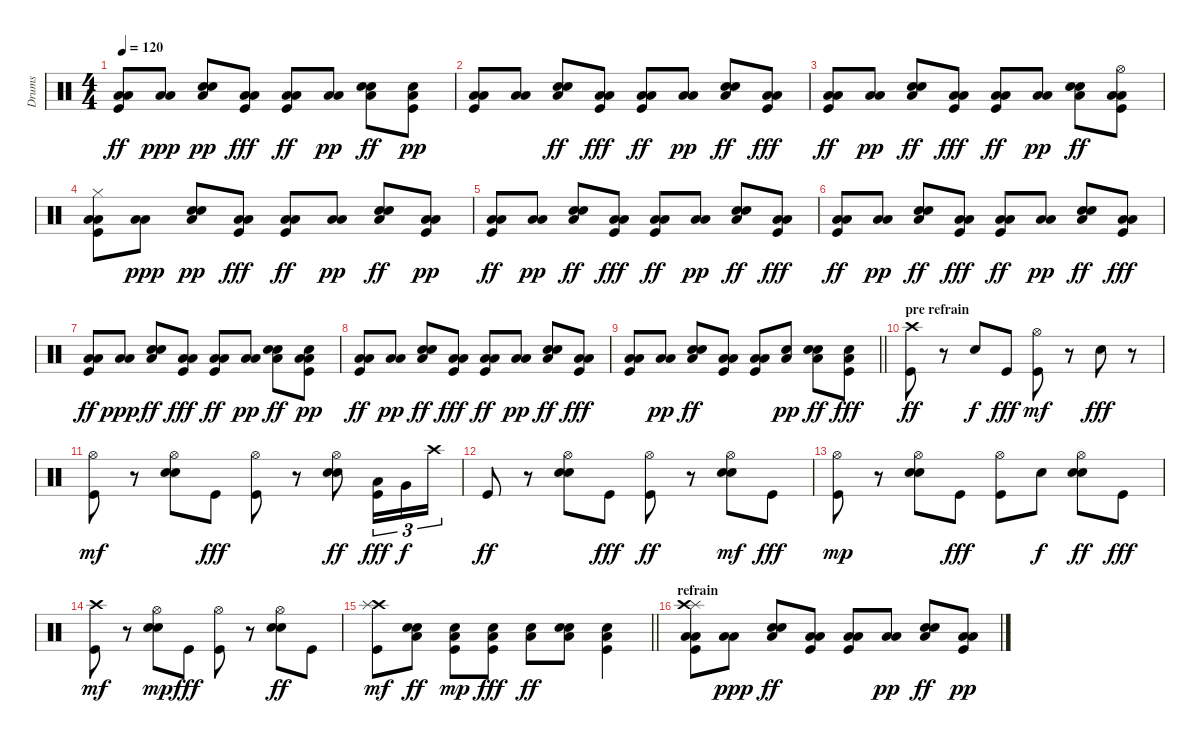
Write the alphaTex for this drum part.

\track ("Drums" "Drums") {instrument percussion}
\staff {score}
\articulation defaults
\ts (4 4)
\tempo 120
\clef neutral
\ks c
("Low Tom (hit)" "Low Floor Tom (hit)" "Kick (hit)").8{dy ff} ("Low Floor Tom (hit)" "Low Tom (hit)").8{dy ppp} ("Hand Clap (hit)" "Snare (hit) 2" "Low Floor Tom (hit)").8{dy pp} ("Low Tom (hit)" "Low Floor Tom (hit)" "Kick (hit)").8{dy fff} ("Low Tom (hit)" "Low Floor Tom (hit)" "Kick (hit)").8{dy ff} ("Low Tom (hit)" "Low Floor Tom (hit)").8{dy pp} ("Low Floor Tom (hit)" "Hand Clap (hit)" "Snare (hit) 2").8{dy ff} ("Snare (hit) 2" "Kick (hit)" "Low Floor Tom (hit)").8{dy pp} |
("Kick (hit)" "Low Tom (hit)" "Low Floor Tom (hit)").8 ("Low Tom (hit)" "Low Floor Tom (hit)").8 ("Snare (hit) 2" "Low Floor Tom (hit)" "Hand Clap (hit)").8{dy ff} ("Low Tom (hit)" "Low Floor Tom (hit)" "Kick (hit)").8{dy fff} ("Low Tom (hit)" "Low Floor Tom (hit)" "Kick (hit)").8{dy ff} ("Low Tom (hit)" "Low Floor Tom (hit)").8{dy pp} ("Low Floor Tom (hit)" "Hand Clap (hit)" "Snare (hit) 2").8{dy ff} ("Low Tom (hit)" "Low Floor Tom (hit)" "Kick (hit)").8{dy fff} |
("Low Tom (hit)" "Low Floor Tom (hit)" "Kick (hit)").8{dy ff} ("Low Tom (hit)" "Low Floor Tom (hit)").8{dy pp} ("Snare (hit) 2" "Low Floor Tom (hit)" "Hand Clap (hit)").8{dy ff} ("Low Tom (hit)" "Low Floor Tom (hit)" "Kick (hit)").8{dy fff} ("Low Tom (hit)" "Low Floor Tom (hit)" "Kick (hit)").8{dy ff} ("Low Floor Tom (hit)" "Low Tom (hit)").8{dy pp} ("Low Floor Tom (hit)" "Hand Clap (hit)" "Snare (hit) 2").8{dy ff} ("Low Tom (hit)" "Low Floor Tom (hit)" "Kick (hit)" "Hi-Hat (open)").8 |
("Hi-Hat (closed)" "Low Tom (hit)" "Low Floor Tom (hit)" "Kick (hit)").8 ("Low Floor Tom (hit)" "Low Tom (hit)").8{dy ppp} ("Hand Clap (hit)" "Snare (hit) 2" "Low Floor Tom (hit)").8{dy pp} ("Low Tom (hit)" "Low Floor Tom (hit)" "Kick (hit)").8{dy fff} ("Low Tom (hit)" "Low Floor Tom (hit)" "Kick (hit)").8{dy ff} ("Low Tom (hit)" "Low Floor Tom (hit)").8{dy pp} ("Low Floor Tom (hit)" "Hand Clap (hit)" "Snare (hit) 2").8{dy ff} ("Kick (hit)" "Low Tom (hit)" "Low Floor Tom (hit)").8{dy pp} |
("Low Tom (hit)" "Low Floor Tom (hit)" "Kick (hit)").8{dy ff} ("Low Tom (hit)" "Low Floor Tom (hit)").8{dy pp} ("Snare (hit) 2" "Low Floor Tom (hit)" "Hand Clap (hit)").8{dy ff} ("Low Tom (hit)" "Low Floor Tom (hit)" "Kick (hit)").8{dy fff} ("Low Tom (hit)" "Low Floor Tom (hit)" "Kick (hit)").8{dy ff} ("Low Tom (hit)" "Low Floor Tom (hit)").8{dy pp} ("Low Floor Tom (hit)" "Hand Clap (hit)" "Snare (hit) 2").8{dy ff} ("Low Tom (hit)" "Low Floor Tom (hit)" "Kick (hit)").8{dy fff} |
("Low Tom (hit)" "Low Floor Tom (hit)" "Kick (hit)").8{dy ff} ("Low Tom (hit)" "Low Floor Tom (hit)").8{dy pp} ("Snare (hit) 2" "Low Floor Tom (hit)" "Hand Clap (hit)").8{dy ff} ("Low Tom (hit)" "Low Floor Tom (hit)" "Kick (hit)").8{dy fff} ("Low Tom (hit)" "Low Floor Tom (hit)" "Kick (hit)").8{dy ff} ("Low Floor Tom (hit)" "Low Tom (hit)").8{dy pp} ("Snare (hit) 2" "Low Floor Tom (hit)" "Hand Clap (hit)").8{dy ff} ("Low Tom (hit)" "Low Floor Tom (hit)" "Kick (hit)").8{dy fff} |
("Low Tom (hit)" "Low Floor Tom (hit)" "Kick (hit)").8{dy ff} ("Low Floor Tom (hit)" "Low Tom (hit)").8{dy ppp} ("Snare (hit) 2" "Low Floor Tom (hit)" "Hand Clap (hit)").8{dy ff} ("Low Tom (hit)" "Low Floor Tom (hit)" "Kick (hit)").8{dy fff} ("Low Tom (hit)" "Low Floor Tom (hit)" "Kick (hit)").8{dy ff} ("Low Tom (hit)" "Low Floor Tom (hit)").8{dy pp} ("Low Floor Tom (hit)" "Hand Clap (hit)" "Snare (hit) 2").8{dy ff} ("Snare (hit) 2" "Kick (hit)" "Low Tom (hit)" "Low Floor Tom (hit)").8{dy pp} |
("Low Tom (hit)" "Low Floor Tom (hit)" "Kick (hit)").8{dy ff} ("Low Tom (hit)" "Low Floor Tom (hit)").8{dy pp} ("Snare (hit) 2" "Low Floor Tom (hit)" "Hand Clap (hit)").8{dy ff} ("Low Tom (hit)" "Low Floor Tom (hit)" "Kick (hit)").8{dy fff} ("Low Tom (hit)" "Low Floor Tom (hit)" "Kick (hit)").8{dy ff} ("Low Tom (hit)" "Low Floor Tom (hit)").8{dy pp} ("Snare (hit) 2" "Low Floor Tom (hit)" "Hand Clap (hit)").8{dy ff} ("Low Tom (hit)" "Low Floor Tom (hit)" "Kick (hit)").8{dy fff} |
\barLineRight lightlight
("Low Tom (hit)" "Low Floor Tom (hit)" "Kick (hit)").8 ("Low Tom (hit)" "Low Floor Tom (hit)").8{dy pp} ("Snare (hit) 2" "Low Floor Tom (hit)" "Hand Clap (hit)").8{dy ff} ("Low Tom (hit)" "Low Floor Tom (hit)" "Kick (hit)").8 ("Low Tom (hit)" "Low Floor Tom (hit)" "Kick (hit)").8 ("Snare (hit) 2" "Low Floor Tom (hit)").8{dy pp} ("Low Floor Tom (hit)" "Hand Clap (hit)" "Snare (hit) 2").8{dy ff} ("Snare (hit) 2" "Low Floor Tom (hit)" "Kick (hit)").8{dy fff} |
\section ("" "pre refrain")
("Crash high (hit)" "Kick (hit)").8{dy ff} r.8 "Snare (hit) 2".8{dy f} "Kick (hit)".8{dy fff} ("Kick (hit)" "Hi-Hat (open)").8{dy mf} r.8 "Snare (hit) 2".8{dy fff} r.8 |
("Kick (hit)" "Hi-Hat (open)").8{dy mf} r.8 ("Hi-Hat (open)" "Snare (hit) 2" "Hand Clap (hit)").8 "Kick (hit)".8{dy fff} ("Hi-Hat (open)" "Kick (hit)").8 r.8 ("Hi-Hat (open)" "Snare (hit) 2" "Hand Clap (hit)").8{dy ff} ("Low Tom (hit)" "Kick (hit)").16{tu (3 2) dy fff} "Very Low Tom (hit)".16{tu (3 2) dy f} "Crash high (hit)".16{tu (3 2)} |
"Kick (hit)".8{dy ff} r.8 ("Hi-Hat (open)" "Hand Clap (hit)" "Snare (hit) 2").8 "Kick (hit)".8{dy fff} ("Hi-Hat (open)" "Kick (hit)").8{dy ff} r.8 ("Hand Clap (hit)" "Snare (hit) 2" "Hi-Hat (open)").8{dy mf} "Kick (hit)".8{dy fff} |
("Kick (hit)" "Hi-Hat (open)").8{dy mp} r.8 ("Hand Clap (hit)" "Snare (hit) 2" "Hi-Hat (open)").8 "Kick (hit)".8{dy fff} ("Hi-Hat (open)" "Kick (hit)").8 "Snare (hit) 2".8{dy f} ("Hand Clap (hit)" "Snare (hit) 2" "Hi-Hat (open)").8{dy ff} "Kick (hit)".8{dy fff} |
("Kick (hit)" "Crash high (hit)").8{dy mf} r.8 ("Hand Clap (hit)" "Snare (hit) 2" "Hi-Hat (open)").8{dy mp} "Kick (hit)".8{dy fff} ("Hi-Hat (open)" "Kick (hit)").8 r.8 ("Hi-Hat (open)" "Hand Clap (hit)" "Snare (hit) 2").8{dy ff} "Kick (hit)".8 |
\barLineRight lightlight
("Crash high (hit)" "Kick (hit)" "Splash (hit)").8{dy mf} ("Snare (hit) 2" "Low Floor Tom (hit)" "Hand Clap (hit)").8{dy ff} ("Low Floor Tom (hit)" "Kick (hit)" "Snare (hit) 2").8{dy mp} ("Snare (hit) 2" "Low Floor Tom (hit)" "Kick (hit)").8{dy fff} ("Snare (hit) 2" "Low Floor Tom (hit)").8{dy ff} ("Hand Clap (hit)" "Snare (hit) 2" "Low Floor Tom (hit)").8 ("Snare (hit) 2" "Low Floor Tom (hit)" "Kick (hit)").4 |
\section ("" "refrain")
("Low Tom (hit)" "Low Floor Tom (hit)" "Kick (hit)" "Splash (hit)" "Crash high (hit)").8 ("Low Floor Tom (hit)" "Low Tom (hit)").8{dy ppp} ("Low Floor Tom (hit)" "Hand Clap (hit)" "Snare (hit) 2").8{dy ff} ("Low Tom (hit)" "Low Floor Tom (hit)" "Kick (hit)").8 ("Low Tom (hit)" "Low Floor Tom (hit)" "Kick (hit)").8 ("Low Tom (hit)" "Low Floor Tom (hit)").8{dy pp} ("Low Floor Tom (hit)" "Hand Clap (hit)" "Snare (hit) 2").8{dy ff} ("Kick (hit)" "Low Tom (hit)" "Low Floor Tom (hit)").8{dy pp}
